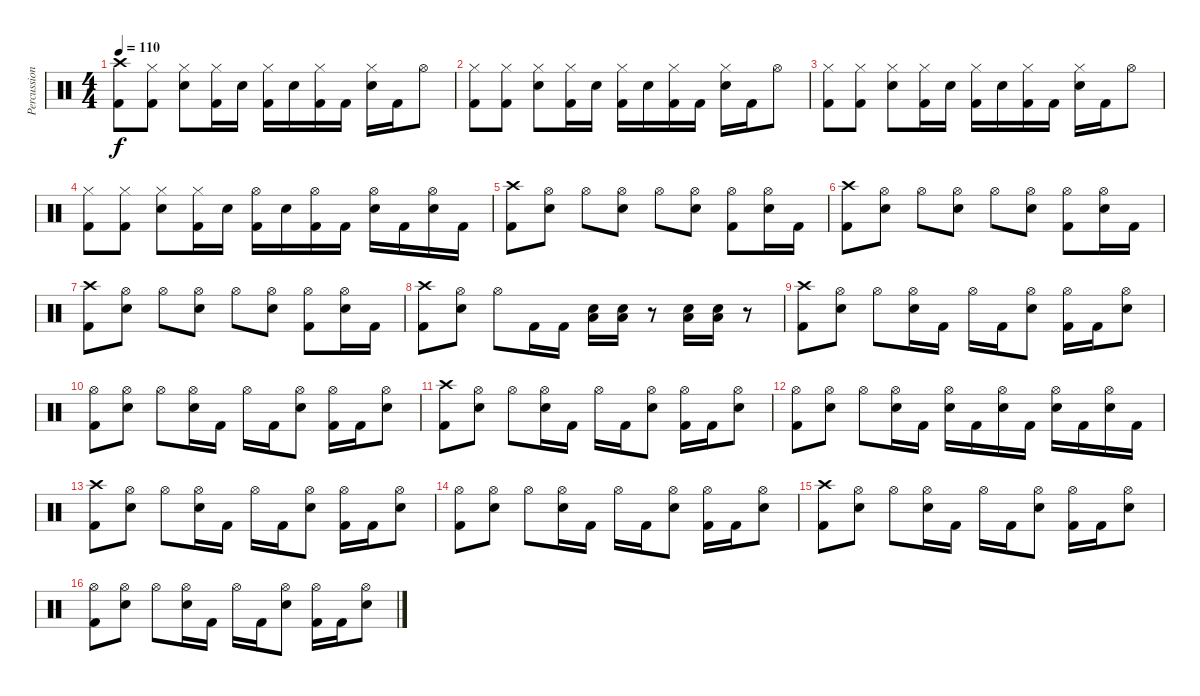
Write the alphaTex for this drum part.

\track ("Percussioni" "Percussion") {instrument percussion}
\staff {score}
\articulation defaults
\ts (4 4)
\tempo 110
\clef neutral
\ks c
("Crash high (hit)" "Kick (hit) 2").8{dy f} ("Hi-Hat (closed)" "Kick (hit) 2").8 ("Hi-Hat (closed)" "Snare (hit) 2").8 ("Hi-Hat (closed)" "Kick (hit) 2").16 "Snare (hit) 2".16 ("Hi-Hat (closed)" "Kick (hit) 2").16 "Snare (hit) 2".16 ("Hi-Hat (closed)" "Kick (hit) 2").16 "Kick (hit) 2".16 ("Hi-Hat (closed)" "Snare (hit) 2").16 "Kick (hit) 2".16 "Hi-Hat (open)".8 |
("Hi-Hat (closed)" "Kick (hit) 2").8 ("Hi-Hat (closed)" "Kick (hit) 2").8 ("Hi-Hat (closed)" "Snare (hit) 2").8 ("Hi-Hat (closed)" "Kick (hit) 2").16 "Snare (hit) 2".16 ("Hi-Hat (closed)" "Kick (hit) 2").16 "Snare (hit) 2".16 ("Hi-Hat (closed)" "Kick (hit) 2").16 "Kick (hit) 2".16 ("Hi-Hat (closed)" "Snare (hit) 2").16 "Kick (hit) 2".16 "Hi-Hat (open)".8 |
("Hi-Hat (closed)" "Kick (hit) 2").8 ("Hi-Hat (closed)" "Kick (hit) 2").8 ("Hi-Hat (closed)" "Snare (hit) 2").8 ("Hi-Hat (closed)" "Kick (hit) 2").16 "Snare (hit) 2".16 ("Hi-Hat (closed)" "Kick (hit) 2").16 "Snare (hit) 2".16 ("Hi-Hat (closed)" "Kick (hit) 2").16 "Kick (hit) 2".16 ("Hi-Hat (closed)" "Snare (hit) 2").16 "Kick (hit) 2".16 "Hi-Hat (open)".8 |
("Hi-Hat (closed)" "Kick (hit) 2").8 ("Hi-Hat (closed)" "Kick (hit) 2").8 ("Hi-Hat (closed)" "Snare (hit) 2").8 ("Hi-Hat (closed)" "Kick (hit) 2").16 "Snare (hit) 2".16 ("Hi-Hat (open)" "Kick (hit) 2").16 "Snare (hit) 2".16 ("Hi-Hat (open)" "Kick (hit) 2").16 "Kick (hit) 2".16 ("Hi-Hat (open)" "Snare (hit) 2").16 "Kick (hit) 2".16 ("Hi-Hat (open)" "Snare (hit) 2").16 "Kick (hit) 2".16 |
("Crash high (hit)" "Kick (hit) 2").8 ("Hi-Hat (open)" "Snare (hit) 2").8 "Hi-Hat (open)".8 ("Hi-Hat (open)" "Snare (hit) 2").8 "Hi-Hat (open)".8 ("Hi-Hat (open)" "Snare (hit) 2").8 ("Hi-Hat (open)" "Kick (hit) 2").8 ("Hi-Hat (open)" "Snare (hit) 2").16 "Kick (hit) 2".16 |
("Crash high (hit)" "Kick (hit) 2").8 ("Hi-Hat (open)" "Snare (hit) 2").8 "Hi-Hat (open)".8 ("Hi-Hat (open)" "Snare (hit) 2").8 "Hi-Hat (open)".8 ("Hi-Hat (open)" "Snare (hit) 2").8 ("Hi-Hat (open)" "Kick (hit) 2").8 ("Hi-Hat (open)" "Snare (hit) 2").16 "Kick (hit) 2".16 |
("Crash high (hit)" "Kick (hit) 2").8 ("Hi-Hat (open)" "Snare (hit) 2").8 "Hi-Hat (open)".8 ("Hi-Hat (open)" "Snare (hit) 2").8 "Hi-Hat (open)".8 ("Hi-Hat (open)" "Snare (hit) 2").8 ("Hi-Hat (open)" "Kick (hit) 2").8 ("Hi-Hat (open)" "Snare (hit) 2").16 "Kick (hit) 2".16 |
("Crash high (hit)" "Kick (hit) 2").8 ("Hi-Hat (open)" "Snare (hit) 2").8 "Hi-Hat (open)".8 "Kick (hit) 2".16 "Kick (hit) 2".16 ("Snare (hit) 2" "Low Tom (hit)").16 ("Snare (hit) 2" "Low Tom (hit)").16 r.8 ("Snare (hit) 2" "Low Tom (hit)").16 ("Snare (hit) 2" "Low Tom (hit)").16 r.8 |
("Crash high (hit)" "Kick (hit) 2").8 ("Hi-Hat (open)" "Snare (hit) 2").8 "Hi-Hat (open)".8 ("Hi-Hat (open)" "Snare (hit) 2").16 "Kick (hit) 2".16 "Hi-Hat (open)".16 "Kick (hit) 2".16 ("Hi-Hat (open)" "Snare (hit) 2").8 ("Hi-Hat (open)" "Kick (hit) 2").16 "Kick (hit) 2".16 ("Hi-Hat (open)" "Snare (hit) 2").8 |
("Hi-Hat (open)" "Kick (hit) 2").8 ("Hi-Hat (open)" "Snare (hit) 2").8 "Hi-Hat (open)".8 ("Hi-Hat (open)" "Snare (hit) 2").16 "Kick (hit) 2".16 "Hi-Hat (open)".16 "Kick (hit) 2".16 ("Hi-Hat (open)" "Snare (hit) 2").8 ("Hi-Hat (open)" "Kick (hit) 2").16 "Kick (hit) 2".16 ("Hi-Hat (open)" "Snare (hit) 2").8 |
("Crash high (hit)" "Kick (hit) 2").8 ("Hi-Hat (open)" "Snare (hit) 2").8 "Hi-Hat (open)".8 ("Hi-Hat (open)" "Snare (hit) 2").16 "Kick (hit) 2".16 "Hi-Hat (open)".16 "Kick (hit) 2".16 ("Hi-Hat (open)" "Snare (hit) 2").8 ("Hi-Hat (open)" "Kick (hit) 2").16 "Kick (hit) 2".16 ("Hi-Hat (open)" "Snare (hit) 2").8 |
("Hi-Hat (open)" "Kick (hit) 2").8 ("Hi-Hat (open)" "Snare (hit) 2").8 "Hi-Hat (open)".8 ("Hi-Hat (open)" "Snare (hit) 2").16 "Kick (hit) 2".16 ("Hi-Hat (open)" "Snare (hit) 2").16 "Kick (hit) 2".16 ("Hi-Hat (open)" "Snare (hit) 2").16 "Kick (hit) 2".16 ("Hi-Hat (open)" "Snare (hit) 2").16 "Kick (hit) 2".16 ("Hi-Hat (open)" "Snare (hit) 2").16 "Kick (hit) 2".16 |
("Crash high (hit)" "Kick (hit) 2").8 ("Hi-Hat (open)" "Snare (hit) 2").8 "Hi-Hat (open)".8 ("Hi-Hat (open)" "Snare (hit) 2").16 "Kick (hit) 2".16 "Hi-Hat (open)".16 "Kick (hit) 2".16 ("Hi-Hat (open)" "Snare (hit) 2").8 ("Hi-Hat (open)" "Kick (hit) 2").16 "Kick (hit) 2".16 ("Hi-Hat (open)" "Snare (hit) 2").8 |
("Hi-Hat (open)" "Kick (hit) 2").8 ("Hi-Hat (open)" "Snare (hit) 2").8 "Hi-Hat (open)".8 ("Hi-Hat (open)" "Snare (hit) 2").16 "Kick (hit) 2".16 "Hi-Hat (open)".16 "Kick (hit) 2".16 ("Hi-Hat (open)" "Snare (hit) 2").8 ("Hi-Hat (open)" "Kick (hit) 2").16 "Kick (hit) 2".16 ("Hi-Hat (open)" "Snare (hit) 2").8 |
("Crash high (hit)" "Kick (hit) 2").8 ("Hi-Hat (open)" "Snare (hit) 2").8 "Hi-Hat (open)".8 ("Hi-Hat (open)" "Snare (hit) 2").16 "Kick (hit) 2".16 "Hi-Hat (open)".16 "Kick (hit) 2".16 ("Hi-Hat (open)" "Snare (hit) 2").8 ("Hi-Hat (open)" "Kick (hit) 2").16 "Kick (hit) 2".16 ("Hi-Hat (open)" "Snare (hit) 2").8 |
("Hi-Hat (open)" "Kick (hit) 2").8 ("Hi-Hat (open)" "Snare (hit) 2").8 "Hi-Hat (open)".8 ("Hi-Hat (open)" "Snare (hit) 2").16 "Kick (hit) 2".16 "Hi-Hat (open)".16 "Kick (hit) 2".16 ("Hi-Hat (open)" "Snare (hit) 2").8 ("Hi-Hat (open)" "Kick (hit) 2").16 "Kick (hit) 2".16 ("Hi-Hat (open)" "Snare (hit) 2").8
